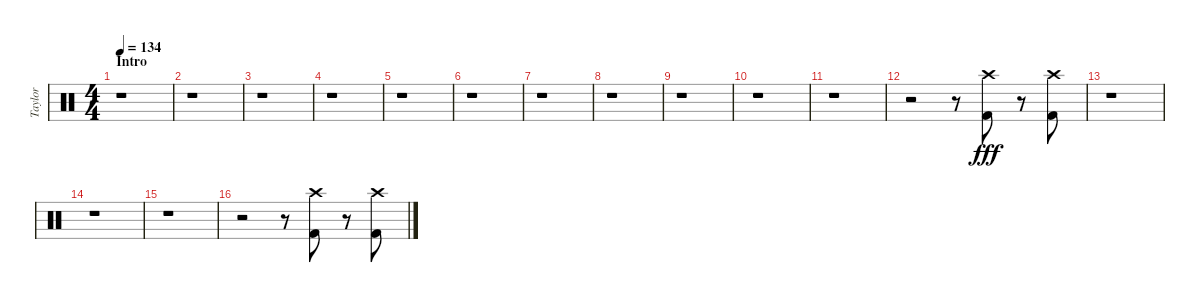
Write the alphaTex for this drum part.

\track ("Taylor" "Taylor") {instrument percussion}
\staff {score}
\articulation defaults
\ts (4 4)
\section ("" "Intro")
\tempo 134
\clef neutral
\ks c
r.1{dy fff} |
r.1 |
r.1 |
r.1 |
r.1 |
r.1 |
r.1 |
r.1 |
r.1 |
r.1 |
r.1 |
r.2 r.8 ("Kick (hit) 2" "Crash high (hit)").8 r.8 ("Kick (hit) 2" "Crash high (hit)").8 |
r.1 |
r.1 |
r.1 |
r.2 r.8 ("Kick (hit) 2" "Crash high (hit)").8 r.8 ("Kick (hit) 2" "Crash high (hit)").8
